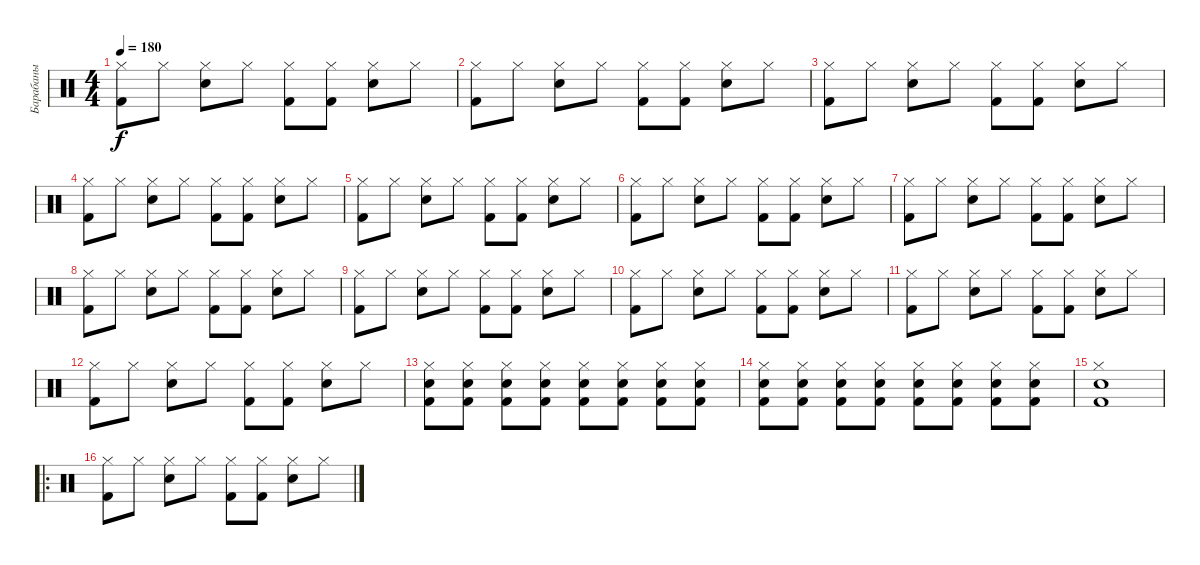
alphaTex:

\track ("Барабаны" "Барабаны") {instrument percussion}
\staff {score}
\articulation defaults
\ts (4 4)
\tempo 180
\clef neutral
\ks c
("Hi-Hat (closed)" "Kick (hit) 2").8{dy f} "Hi-Hat (closed)".8 ("Hi-Hat (closed)" "Electric Snare (hit)").8 "Hi-Hat (closed)".8 ("Hi-Hat (closed)" "Kick (hit) 2").8 ("Hi-Hat (closed)" "Kick (hit) 2").8 ("Hi-Hat (closed)" "Electric Snare (hit)").8 "Hi-Hat (closed)".8 |
("Hi-Hat (closed)" "Kick (hit) 2").8 "Hi-Hat (closed)".8 ("Hi-Hat (closed)" "Electric Snare (hit)").8 "Hi-Hat (closed)".8 ("Hi-Hat (closed)" "Kick (hit) 2").8 ("Hi-Hat (closed)" "Kick (hit) 2").8 ("Hi-Hat (closed)" "Electric Snare (hit)").8 "Hi-Hat (closed)".8 |
("Hi-Hat (closed)" "Kick (hit) 2").8 "Hi-Hat (closed)".8 ("Hi-Hat (closed)" "Electric Snare (hit)").8 "Hi-Hat (closed)".8 ("Hi-Hat (closed)" "Kick (hit) 2").8 ("Hi-Hat (closed)" "Kick (hit) 2").8 ("Hi-Hat (closed)" "Electric Snare (hit)").8 "Hi-Hat (closed)".8 |
("Hi-Hat (closed)" "Kick (hit) 2").8 "Hi-Hat (closed)".8 ("Hi-Hat (closed)" "Electric Snare (hit)").8 "Hi-Hat (closed)".8 ("Hi-Hat (closed)" "Kick (hit) 2").8 ("Hi-Hat (closed)" "Kick (hit) 2").8 ("Hi-Hat (closed)" "Electric Snare (hit)").8 "Hi-Hat (closed)".8 |
("Hi-Hat (closed)" "Kick (hit) 2").8 "Hi-Hat (closed)".8 ("Hi-Hat (closed)" "Electric Snare (hit)").8 "Hi-Hat (closed)".8 ("Hi-Hat (closed)" "Kick (hit) 2").8 ("Hi-Hat (closed)" "Kick (hit) 2").8 ("Hi-Hat (closed)" "Electric Snare (hit)").8 "Hi-Hat (closed)".8 |
("Hi-Hat (closed)" "Kick (hit) 2").8 "Hi-Hat (closed)".8 ("Hi-Hat (closed)" "Electric Snare (hit)").8 "Hi-Hat (closed)".8 ("Hi-Hat (closed)" "Kick (hit) 2").8 ("Hi-Hat (closed)" "Kick (hit) 2").8 ("Hi-Hat (closed)" "Electric Snare (hit)").8 "Hi-Hat (closed)".8 |
("Hi-Hat (closed)" "Kick (hit) 2").8 "Hi-Hat (closed)".8 ("Hi-Hat (closed)" "Electric Snare (hit)").8 "Hi-Hat (closed)".8 ("Hi-Hat (closed)" "Kick (hit) 2").8 ("Hi-Hat (closed)" "Kick (hit) 2").8 ("Hi-Hat (closed)" "Electric Snare (hit)").8 "Hi-Hat (closed)".8 |
("Hi-Hat (closed)" "Kick (hit) 2").8 "Hi-Hat (closed)".8 ("Hi-Hat (closed)" "Electric Snare (hit)").8 "Hi-Hat (closed)".8 ("Hi-Hat (closed)" "Kick (hit) 2").8 ("Hi-Hat (closed)" "Kick (hit) 2").8 ("Hi-Hat (closed)" "Electric Snare (hit)").8 "Hi-Hat (closed)".8 |
("Hi-Hat (closed)" "Kick (hit) 2").8 "Hi-Hat (closed)".8 ("Hi-Hat (closed)" "Electric Snare (hit)").8 "Hi-Hat (closed)".8 ("Hi-Hat (closed)" "Kick (hit) 2").8 ("Hi-Hat (closed)" "Kick (hit) 2").8 ("Hi-Hat (closed)" "Electric Snare (hit)").8 "Hi-Hat (closed)".8 |
("Hi-Hat (closed)" "Kick (hit) 2").8 "Hi-Hat (closed)".8 ("Hi-Hat (closed)" "Electric Snare (hit)").8 "Hi-Hat (closed)".8 ("Hi-Hat (closed)" "Kick (hit) 2").8 ("Hi-Hat (closed)" "Kick (hit) 2").8 ("Hi-Hat (closed)" "Electric Snare (hit)").8 "Hi-Hat (closed)".8 |
("Hi-Hat (closed)" "Kick (hit) 2").8 "Hi-Hat (closed)".8 ("Hi-Hat (closed)" "Electric Snare (hit)").8 "Hi-Hat (closed)".8 ("Hi-Hat (closed)" "Kick (hit) 2").8 ("Hi-Hat (closed)" "Kick (hit) 2").8 ("Hi-Hat (closed)" "Electric Snare (hit)").8 "Hi-Hat (closed)".8 |
("Hi-Hat (closed)" "Kick (hit) 2").8 "Hi-Hat (closed)".8 ("Hi-Hat (closed)" "Electric Snare (hit)").8 "Hi-Hat (closed)".8 ("Hi-Hat (closed)" "Kick (hit) 2").8 ("Hi-Hat (closed)" "Kick (hit) 2").8 ("Hi-Hat (closed)" "Electric Snare (hit)").8 "Hi-Hat (closed)".8 |
("Hi-Hat (closed)" "Kick (hit) 2" "Electric Snare (hit)").8 ("Hi-Hat (closed)" "Kick (hit) 2" "Electric Snare (hit)").8 ("Hi-Hat (closed)" "Kick (hit) 2" "Electric Snare (hit)").8 ("Hi-Hat (closed)" "Kick (hit) 2" "Electric Snare (hit)").8 ("Hi-Hat (closed)" "Kick (hit) 2" "Electric Snare (hit)").8 ("Hi-Hat (closed)" "Kick (hit) 2" "Electric Snare (hit)").8 ("Hi-Hat (closed)" "Kick (hit) 2" "Electric Snare (hit)").8 ("Hi-Hat (closed)" "Kick (hit) 2" "Electric Snare (hit)").8 |
("Hi-Hat (closed)" "Kick (hit) 2" "Electric Snare (hit)").8 ("Hi-Hat (closed)" "Kick (hit) 2" "Electric Snare (hit)").8 ("Hi-Hat (closed)" "Kick (hit) 2" "Electric Snare (hit)").8 ("Hi-Hat (closed)" "Kick (hit) 2" "Electric Snare (hit)").8 ("Hi-Hat (closed)" "Kick (hit) 2" "Electric Snare (hit)").8 ("Hi-Hat (closed)" "Kick (hit) 2" "Electric Snare (hit)").8 ("Hi-Hat (closed)" "Kick (hit) 2" "Electric Snare (hit)").8 ("Hi-Hat (closed)" "Kick (hit) 2" "Electric Snare (hit)").8 |
("Hi-Hat (closed)" "Kick (hit) 2" "Electric Snare (hit)").1 |
\ro
("Hi-Hat (closed)" "Kick (hit) 2").8 "Hi-Hat (closed)".8 ("Hi-Hat (closed)" "Electric Snare (hit)").8 "Hi-Hat (closed)".8 ("Hi-Hat (closed)" "Kick (hit) 2").8 ("Hi-Hat (closed)" "Kick (hit) 2").8 ("Hi-Hat (closed)" "Electric Snare (hit)").8 "Hi-Hat (closed)".8
